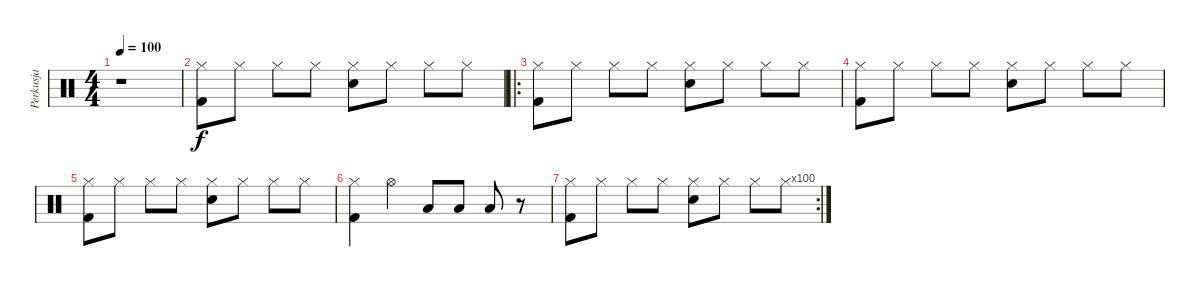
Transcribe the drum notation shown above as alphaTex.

\track ("Perkusja" "Perkusja") {instrument percussion}
\staff {score}
\articulation defaults
\ts (4 4)
\tempo 100
\clef neutral
\ks c
r.1{dy f} |
("Hi-Hat (closed)" "Kick (hit) 2").8 "Hi-Hat (closed)".8 "Hi-Hat (closed)".8 "Hi-Hat (closed)".8 ("Hi-Hat (closed)" "Electric Snare (hit)").8 "Hi-Hat (closed)".8 "Hi-Hat (closed)".8 "Hi-Hat (closed)".8 |
\ro
("Hi-Hat (closed)" "Kick (hit) 2").8 "Hi-Hat (closed)".8 "Hi-Hat (closed)".8 "Hi-Hat (closed)".8 ("Hi-Hat (closed)" "Electric Snare (hit)").8 "Hi-Hat (closed)".8 "Hi-Hat (closed)".8 "Hi-Hat (closed)".8 |
("Hi-Hat (closed)" "Kick (hit) 2").8 "Hi-Hat (closed)".8 "Hi-Hat (closed)".8 "Hi-Hat (closed)".8 ("Hi-Hat (closed)" "Electric Snare (hit)").8 "Hi-Hat (closed)".8 "Hi-Hat (closed)".8 "Hi-Hat (closed)".8 |
("Hi-Hat (closed)" "Kick (hit) 2").8 "Hi-Hat (closed)".8 "Hi-Hat (closed)".8 "Hi-Hat (closed)".8 ("Hi-Hat (closed)" "Electric Snare (hit)").8 "Hi-Hat (closed)".8 "Hi-Hat (closed)".8 "Hi-Hat (closed)".8 |
("Hi-Hat (closed)" "Kick (hit) 2").4 "Hi-Hat (open)".4 "Low Tom (hit)".8 "Low Tom (hit)".8 "Low Tom (hit)".8 r.8 |
\rc 100
("Hi-Hat (closed)" "Kick (hit) 2").8 "Hi-Hat (closed)".8 "Hi-Hat (closed)".8 "Hi-Hat (closed)".8 ("Hi-Hat (closed)" "Electric Snare (hit)").8 "Hi-Hat (closed)".8 "Hi-Hat (closed)".8 "Hi-Hat (closed)".8
